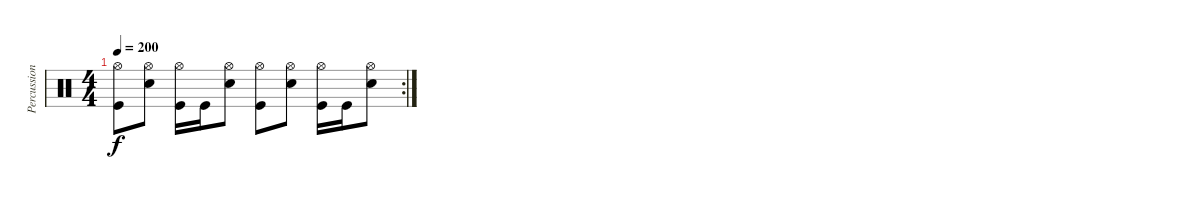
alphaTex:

\track ("Percussion" "Percussion") {instrument percussion}
\staff {score}
\articulation defaults
\rc 2
\ts (4 4)
\tempo 200
\clef neutral
\ks c
("Hi-Hat (open)" "Kick (hit)").8{dy f} ("Hi-Hat (open)" "Snare (hit) 2").8 ("Hi-Hat (open)" "Kick (hit)").16 "Kick (hit)".16 ("Hi-Hat (open)" "Snare (hit) 2").8 ("Hi-Hat (open)" "Kick (hit)").8 ("Hi-Hat (open)" "Snare (hit) 2").8 ("Hi-Hat (open)" "Kick (hit)").16 "Kick (hit)".16 ("Hi-Hat (open)" "Snare (hit) 2").8
